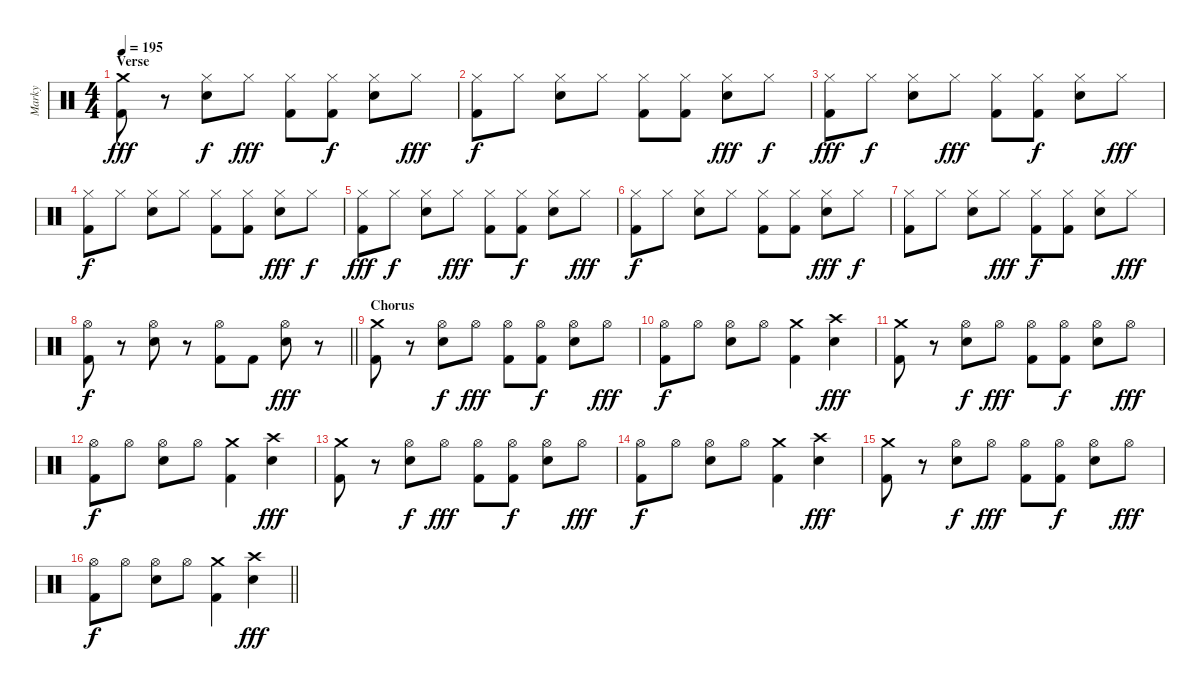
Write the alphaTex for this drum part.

\track ("Marky" "Marky") {instrument percussion}
\staff {score}
\articulation defaults
\ts (4 4)
\section ("" "Verse")
\tempo 195
\clef neutral
\ks c
("Crash medium (hit)" "Kick (hit) 2").8{dy fff} r.8 ("Hi-Hat (closed)" "Electric Snare (hit)").8{dy f} "Hi-Hat (closed)".8{dy fff} ("Hi-Hat (closed)" "Kick (hit) 2").8 ("Hi-Hat (closed)" "Kick (hit) 2").8{dy f} ("Hi-Hat (closed)" "Electric Snare (hit)").8 "Hi-Hat (closed)".8{dy fff} |
("Hi-Hat (closed)" "Kick (hit) 2").8{dy f} "Hi-Hat (closed)".8 ("Hi-Hat (closed)" "Electric Snare (hit)").8 "Hi-Hat (closed)".8 ("Hi-Hat (closed)" "Kick (hit) 2").8 ("Hi-Hat (closed)" "Kick (hit) 2").8 ("Hi-Hat (closed)" "Electric Snare (hit)").8{dy fff} "Hi-Hat (closed)".8{dy f} |
("Hi-Hat (closed)" "Kick (hit) 2").8{dy fff} "Hi-Hat (closed)".8{dy f} ("Hi-Hat (closed)" "Electric Snare (hit)").8 "Hi-Hat (closed)".8{dy fff} ("Hi-Hat (closed)" "Kick (hit) 2").8 ("Hi-Hat (closed)" "Kick (hit) 2").8{dy f} ("Hi-Hat (closed)" "Electric Snare (hit)").8 "Hi-Hat (closed)".8{dy fff} |
("Hi-Hat (closed)" "Kick (hit) 2").8{dy f} "Hi-Hat (closed)".8 ("Hi-Hat (closed)" "Electric Snare (hit)").8 "Hi-Hat (closed)".8 ("Hi-Hat (closed)" "Kick (hit) 2").8 ("Hi-Hat (closed)" "Kick (hit) 2").8 ("Hi-Hat (closed)" "Electric Snare (hit)").8{dy fff} "Hi-Hat (closed)".8{dy f} |
("Hi-Hat (closed)" "Kick (hit) 2").8{dy fff} "Hi-Hat (closed)".8{dy f} ("Hi-Hat (closed)" "Electric Snare (hit)").8 "Hi-Hat (closed)".8{dy fff} ("Hi-Hat (closed)" "Kick (hit) 2").8 ("Hi-Hat (closed)" "Kick (hit) 2").8{dy f} ("Hi-Hat (closed)" "Electric Snare (hit)").8 "Hi-Hat (closed)".8{dy fff} |
("Hi-Hat (closed)" "Kick (hit) 2").8{dy f} "Hi-Hat (closed)".8 ("Hi-Hat (closed)" "Electric Snare (hit)").8 "Hi-Hat (closed)".8 ("Hi-Hat (closed)" "Kick (hit) 2").8 ("Hi-Hat (closed)" "Kick (hit) 2").8 ("Hi-Hat (closed)" "Electric Snare (hit)").8{dy fff} "Hi-Hat (closed)".8{dy f} |
("Hi-Hat (closed)" "Kick (hit) 2").8 "Hi-Hat (closed)".8 ("Hi-Hat (closed)" "Electric Snare (hit)").8 "Hi-Hat (closed)".8{dy fff} ("Hi-Hat (closed)" "Kick (hit) 2").8{dy f} ("Hi-Hat (closed)" "Kick (hit) 2").8 ("Hi-Hat (closed)" "Electric Snare (hit)").8 "Hi-Hat (closed)".8{dy fff} |
\barLineRight lightlight
("Hi-Hat (open)" "Kick (hit) 2").8{dy f} r.8 ("Hi-Hat (open)" "Electric Snare (hit)").8 r.8 ("Hi-Hat (open)" "Kick (hit) 2").8 "Kick (hit) 2".8 ("Hi-Hat (open)" "Electric Snare (hit)").8{dy fff} r.8 |
\section ("" "Chorus")
("Crash medium (hit)" "Kick (hit) 2").8 r.8 ("Hi-Hat (open)" "Electric Snare (hit)").8{dy f} "Hi-Hat (open)".8{dy fff} ("Hi-Hat (open)" "Kick (hit) 2").8 ("Hi-Hat (open)" "Kick (hit) 2").8{dy f} ("Hi-Hat (open)" "Electric Snare (hit)").8 "Hi-Hat (open)".8{dy fff} |
("Hi-Hat (open)" "Kick (hit) 2").8{dy f} "Hi-Hat (open)".8 ("Hi-Hat (open)" "Electric Snare (hit)").8 "Hi-Hat (open)".8 ("Crash medium (hit)" "Kick (hit) 2").4 ("Crash high (hit)" "Electric Snare (hit)").4{dy fff} |
("Crash medium (hit)" "Kick (hit) 2").8 r.8 ("Hi-Hat (open)" "Electric Snare (hit)").8{dy f} "Hi-Hat (open)".8{dy fff} ("Hi-Hat (open)" "Kick (hit) 2").8 ("Hi-Hat (open)" "Kick (hit) 2").8{dy f} ("Hi-Hat (open)" "Electric Snare (hit)").8 "Hi-Hat (open)".8{dy fff} |
("Hi-Hat (open)" "Kick (hit) 2").8{dy f} "Hi-Hat (open)".8 ("Hi-Hat (open)" "Electric Snare (hit)").8 "Hi-Hat (open)".8 ("Crash medium (hit)" "Kick (hit) 2").4 ("Crash high (hit)" "Electric Snare (hit)").4{dy fff} |
("Crash medium (hit)" "Kick (hit) 2").8 r.8 ("Hi-Hat (open)" "Electric Snare (hit)").8{dy f} "Hi-Hat (open)".8{dy fff} ("Hi-Hat (open)" "Kick (hit) 2").8 ("Hi-Hat (open)" "Kick (hit) 2").8{dy f} ("Hi-Hat (open)" "Electric Snare (hit)").8 "Hi-Hat (open)".8{dy fff} |
("Hi-Hat (open)" "Kick (hit) 2").8{dy f} "Hi-Hat (open)".8 ("Hi-Hat (open)" "Electric Snare (hit)").8 "Hi-Hat (open)".8 ("Crash medium (hit)" "Kick (hit) 2").4 ("Crash high (hit)" "Electric Snare (hit)").4{dy fff} |
("Crash medium (hit)" "Kick (hit) 2").8 r.8 ("Hi-Hat (open)" "Electric Snare (hit)").8{dy f} "Hi-Hat (open)".8{dy fff} ("Hi-Hat (open)" "Kick (hit) 2").8 ("Hi-Hat (open)" "Kick (hit) 2").8{dy f} ("Hi-Hat (open)" "Electric Snare (hit)").8 "Hi-Hat (open)".8{dy fff} |
\barLineRight lightlight
("Hi-Hat (open)" "Kick (hit) 2").8{dy f} "Hi-Hat (open)".8 ("Hi-Hat (open)" "Electric Snare (hit)").8 "Hi-Hat (open)".8 ("Crash medium (hit)" "Kick (hit) 2").4 ("Crash high (hit)" "Electric Snare (hit)").4{dy fff}
